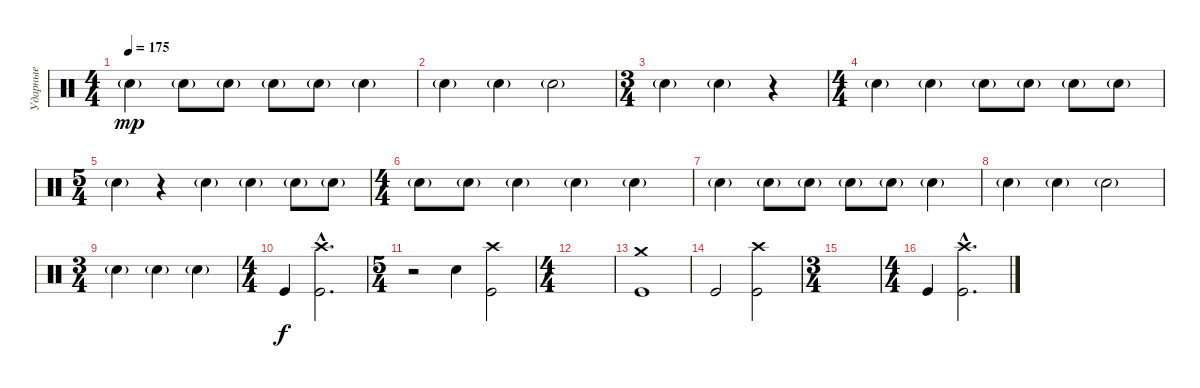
\track ("Ударные" "Ударные") {instrument percussion}
\staff {score}
\articulation defaults
\ts (4 4)
\tempo 175
\clef neutral
\ks c "Snare (hit) 2"{g}.4{dy mp} "Snare (hit) 2"{g}.8 "Snare (hit) 2"{g}.8 "Snare (hit) 2"{g}.8 "Snare (hit) 2"{g}.8 "Snare (hit) 2"{g}.4
|
"Snare (hit) 2"{g}.4 "Snare (hit) 2"{g}.4 "Snare (hit) 2"{g}.2 |
\ts (3 4)
"Snare (hit) 2"{g}.4 "Snare (hit) 2"{g}.4 r.4 |
\ts (4 4)
"Snare (hit) 2"{g}.4 "Snare (hit) 2"{g}.4 "Snare (hit) 2"{g}.8 "Snare (hit) 2"{g}.8 "Snare (hit) 2"{g}.8 "Snare (hit) 2"{g}.8 |
\ts (5 4)
"Snare (hit) 2"{g}.4 r.4 "Snare (hit) 2"{g}.4 "Snare (hit) 2"{g}.4 "Snare (hit) 2"{g}.8 "Snare (hit) 2"{g}.8 |
\ts (4 4)
"Snare (hit) 2"{g}.8 "Snare (hit) 2"{g}.8 "Snare (hit) 2"{g}.4 "Snare (hit) 2"{g}.4 "Snare (hit) 2"{g}.4 |
"Snare (hit) 2"{g}.4 "Snare (hit) 2"{g}.8 "Snare (hit) 2"{g}.8 "Snare (hit) 2"{g}.8 "Snare (hit) 2"{g}.8 "Snare (hit) 2"{g}.4 |
"Snare (hit) 2"{g}.4 "Snare (hit) 2"{g}.4 "Snare (hit) 2"{g}.2 |
\ts (3 4)
"Snare (hit) 2"{g}.4 "Snare (hit) 2"{g}.4 "Snare (hit) 2"{g}.4 |
\ts (4 4)
"Kick (hit)".4{dy f} ("Crash high (hit)"{hac} "Kick (hit)"{hac}).2{d} |
\ts (5 4)
r.2 "Electric Snare (hit)".4 ("Crash high (hit)" "Kick (hit)").2 |
\ts (4 4)
|
("Crash medium (hit)" "Kick (hit)").1 |
"Kick (hit)".2 ("Crash high (hit)" "Kick (hit)").2 |
\ts (3 4)
|
\ts (4 4)
"Kick (hit)".4 ("Crash high (hit)"{hac} "Kick (hit)"{hac}).2{d}
